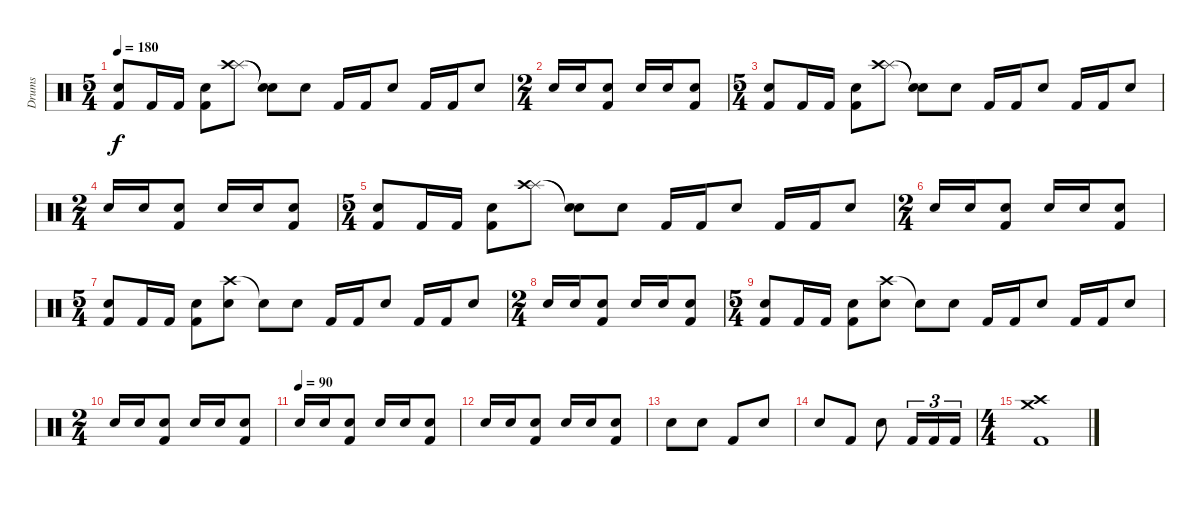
\track ("Drums" "Drums") {instrument percussion}
\staff {score}
\articulation defaults
\ts (5 4)
\tempo 180
\clef neutral
\ks c
("Snare (hit) 2" "Kick (hit) 2").8{dy f} "Kick (hit) 2".16 "Kick (hit) 2".16 ("Snare (hit) 2" "Kick (hit) 2").8 ("Splash (hit)" "Crash high (hit)").8 ("Snare (hit)"{t} "Snare (hit)"{t}).8 "Snare (hit) 2".8 "Kick (hit) 2".16 "Kick (hit) 2".16 "Snare (hit) 2".8 "Kick (hit) 2".16 "Kick (hit) 2".16 "Snare (hit) 2".8 |
\ts (2 4)
"Snare (hit) 2".16 "Snare (hit) 2".16 ("Snare (hit) 2" "Kick (hit) 2").8 "Snare (hit) 2".16 "Snare (hit) 2".16 ("Snare (hit) 2" "Kick (hit) 2").8 |
\ts (5 4)
("Snare (hit) 2" "Kick (hit) 2").8 "Kick (hit) 2".16 "Kick (hit) 2".16 ("Snare (hit) 2" "Kick (hit) 2").8 ("Splash (hit)" "Crash high (hit)").8 ("Snare (hit)"{t} "Snare (hit)"{t}).8 "Snare (hit) 2".8 "Kick (hit) 2".16 "Kick (hit) 2".16 "Snare (hit) 2".8 "Kick (hit) 2".16 "Kick (hit) 2".16 "Snare (hit) 2".8 |
\ts (2 4)
"Snare (hit) 2".16 "Snare (hit) 2".16 ("Snare (hit) 2" "Kick (hit) 2").8 "Snare (hit) 2".16 "Snare (hit) 2".16 ("Snare (hit) 2" "Kick (hit) 2").8 |
\ts (5 4)
("Snare (hit) 2" "Kick (hit) 2").8 "Kick (hit) 2".16 "Kick (hit) 2".16 ("Snare (hit) 2" "Kick (hit) 2").8 ("Splash (hit)" "Crash high (hit)").8 ("Snare (hit)"{t} "Snare (hit)"{t}).8 "Snare (hit) 2".8 "Kick (hit) 2".16 "Kick (hit) 2".16 "Snare (hit) 2".8 "Kick (hit) 2".16 "Kick (hit) 2".16 "Snare (hit) 2".8 |
\ts (2 4)
"Snare (hit) 2".16 "Snare (hit) 2".16 ("Snare (hit) 2" "Kick (hit) 2").8 "Snare (hit) 2".16 "Snare (hit) 2".16 ("Snare (hit) 2" "Kick (hit) 2").8 |
\ts (5 4)
("Snare (hit) 2" "Kick (hit) 2").8 "Kick (hit) 2".16 "Kick (hit) 2".16 ("Snare (hit) 2" "Kick (hit) 2").8 ("Crash high (hit)" "Snare (hit) 2").8 "Snare (hit)"{t}.8 "Snare (hit) 2".8 "Kick (hit) 2".16 "Kick (hit) 2".16 "Snare (hit) 2".8 "Kick (hit) 2".16 "Kick (hit) 2".16 "Snare (hit) 2".8 |
\ts (2 4)
"Snare (hit) 2".16 "Snare (hit) 2".16 ("Snare (hit) 2" "Kick (hit) 2").8 "Snare (hit) 2".16 "Snare (hit) 2".16 ("Snare (hit) 2" "Kick (hit) 2").8 |
\ts (5 4)
("Snare (hit) 2" "Kick (hit) 2").8 "Kick (hit) 2".16 "Kick (hit) 2".16 ("Snare (hit) 2" "Kick (hit) 2").8 ("Crash high (hit)" "Snare (hit) 2").8 "Snare (hit)"{t}.8 "Snare (hit) 2".8 "Kick (hit) 2".16 "Kick (hit) 2".16 "Snare (hit) 2".8 "Kick (hit) 2".16 "Kick (hit) 2".16 "Snare (hit) 2".8 |
\ts (2 4)
"Snare (hit) 2".16 "Snare (hit) 2".16 ("Snare (hit) 2" "Kick (hit) 2").8 "Snare (hit) 2".16 "Snare (hit) 2".16 ("Snare (hit) 2" "Kick (hit) 2").8 |
\tempo (90)
"Snare (hit) 2".16 "Snare (hit) 2".16 ("Snare (hit) 2" "Kick (hit) 2").8 "Snare (hit) 2".16 "Snare (hit) 2".16 ("Snare (hit) 2" "Kick (hit) 2").8 |
"Snare (hit) 2".16 "Snare (hit) 2".16 ("Snare (hit) 2" "Kick (hit) 2").8 "Snare (hit) 2".16 "Snare (hit) 2".16 ("Snare (hit) 2" "Kick (hit) 2").8 |
"Snare (hit) 2".8 "Snare (hit) 2".8 "Kick (hit) 2".8 "Snare (hit) 2".8 |
"Snare (hit) 2".8 "Kick (hit) 2".8 "Snare (hit) 2".8 "Kick (hit) 2".16{tu (3 2)} "Kick (hit) 2".16{tu (3 2)} "Kick (hit) 2".16{tu (3 2)} |
\ts (4 4)
("Crash medium (hit)" "Crash high (hit)" "Kick (hit) 2").1
